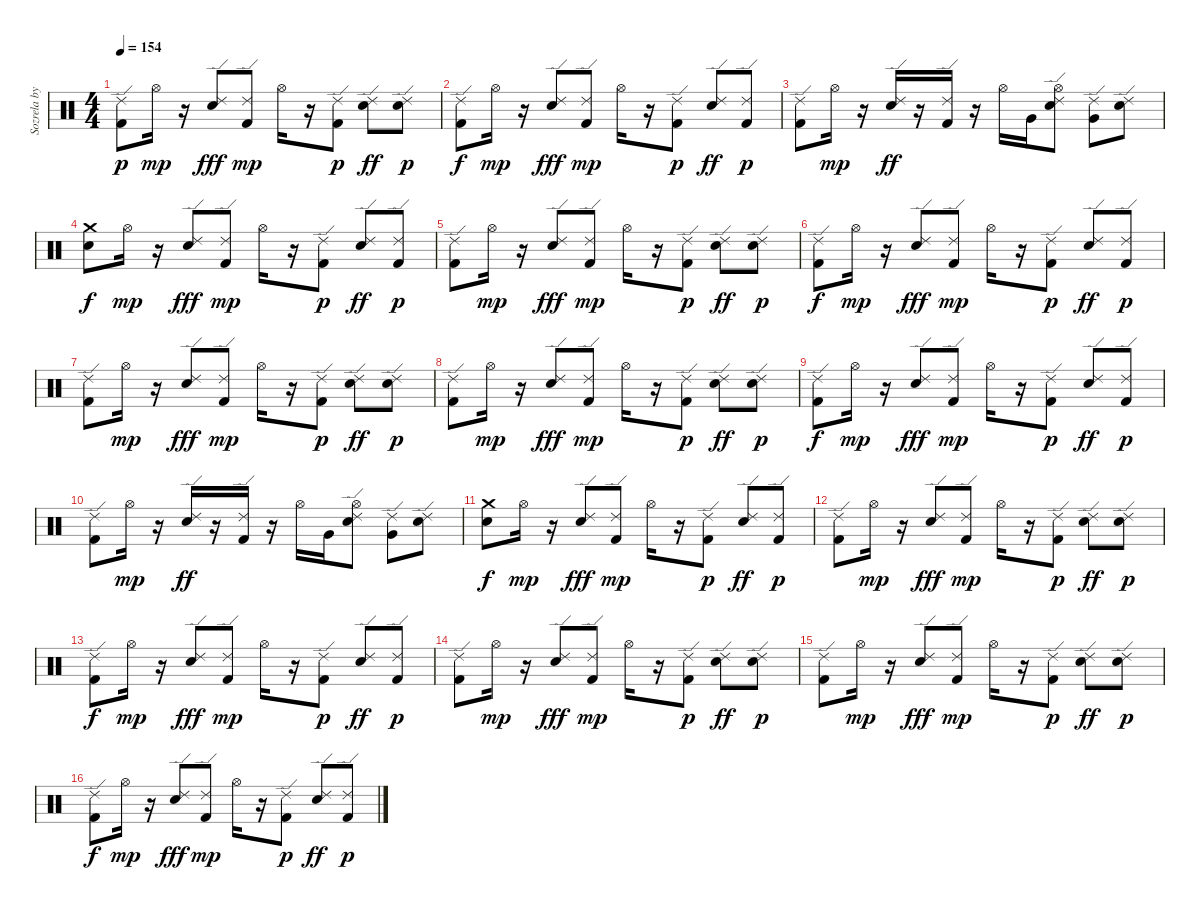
\track ("Sozrela by Anton" "Sozrela by") {instrument percussion}
\staff {score}
\articulation defaults
\ts (4 4)
\tempo 154
\clef neutral
\ks c
("Kick (hit) 2" "Ride (edge) 2").8{dy p} "Hi-Hat (open)".16{dy mp} r.16 ("Ride (edge) 2" "Snare (hit) 2").8{dy fff} ("Ride (edge) 2" "Kick (hit) 2").8{dy mp} "Hi-Hat (open)".16 r.16 ("Ride (edge) 2" "Kick (hit) 2").8{dy p} ("Ride (edge) 2" "Snare (hit) 2").8{dy ff} ("Ride (edge) 2" "Snare (hit) 2").8{dy p} |
("Kick (hit) 2" "Ride (edge) 2").8{dy f} "Hi-Hat (open)".16{dy mp} r.16 ("Ride (edge) 2" "Snare (hit) 2").8{dy fff} ("Ride (edge) 2" "Kick (hit) 2").8{dy mp} "Hi-Hat (open)".16 r.16 ("Ride (edge) 2" "Kick (hit) 2").8{dy p} ("Ride (edge) 2" "Snare (hit) 2").8{dy ff} ("Ride (edge) 2" "Kick (hit) 2").8{dy p} |
("Kick (hit) 2" "Ride (edge) 2").8 "Hi-Hat (open)".16{dy mp} r.16 ("Snare (hit) 2" "Ride (edge) 2").16{dy ff} r.16 ("Kick (hit) 2" "Ride (edge) 2").16 r.16 "Hi-Hat (open)".16 "Very Low Tom (hit)".16 ("Hi-Hat (open)" "Ride (edge) 2" "Electric Snare (hit)").8 ("Ride (edge) 2" "Very Low Tom (hit)").8 ("Ride (edge) 2" "Electric Snare (hit)").8 |
("Electric Snare (hit)" "Crash medium (hit)").8{dy f} "Hi-Hat (open)".16{dy mp} r.16 ("Ride (edge) 2" "Snare (hit) 2").8{dy fff} ("Ride (edge) 2" "Kick (hit) 2").8{dy mp} "Hi-Hat (open)".16 r.16 ("Ride (edge) 2" "Kick (hit) 2").8{dy p} ("Ride (edge) 2" "Snare (hit) 2").8{dy ff} ("Ride (edge) 2" "Kick (hit) 2").8{dy p} |
("Kick (hit) 2" "Ride (edge) 2").8 "Hi-Hat (open)".16{dy mp} r.16 ("Ride (edge) 2" "Snare (hit) 2").8{dy fff} ("Ride (edge) 2" "Kick (hit) 2").8{dy mp} "Hi-Hat (open)".16 r.16 ("Ride (edge) 2" "Kick (hit) 2").8{dy p} ("Ride (edge) 2" "Snare (hit) 2").8{dy ff} ("Ride (edge) 2" "Snare (hit) 2").8{dy p} |
("Kick (hit) 2" "Ride (edge) 2").8{dy f} "Hi-Hat (open)".16{dy mp} r.16 ("Ride (edge) 2" "Snare (hit) 2").8{dy fff} ("Ride (edge) 2" "Kick (hit) 2").8{dy mp} "Hi-Hat (open)".16 r.16 ("Ride (edge) 2" "Kick (hit) 2").8{dy p} ("Ride (edge) 2" "Snare (hit) 2").8{dy ff} ("Ride (edge) 2" "Kick (hit) 2").8{dy p} |
("Kick (hit) 2" "Ride (edge) 2").8 "Hi-Hat (open)".16{dy mp} r.16 ("Ride (edge) 2" "Snare (hit) 2").8{dy fff} ("Ride (edge) 2" "Kick (hit) 2").8{dy mp} "Hi-Hat (open)".16 r.16 ("Ride (edge) 2" "Kick (hit) 2").8{dy p} ("Ride (edge) 2" "Snare (hit) 2").8{dy ff} ("Ride (edge) 2" "Snare (hit) 2").8{dy p} |
("Kick (hit) 2" "Ride (edge) 2").8 "Hi-Hat (open)".16{dy mp} r.16 ("Ride (edge) 2" "Snare (hit) 2").8{dy fff} ("Ride (edge) 2" "Kick (hit) 2").8{dy mp} "Hi-Hat (open)".16 r.16 ("Ride (edge) 2" "Kick (hit) 2").8{dy p} ("Ride (edge) 2" "Snare (hit) 2").8{dy ff} ("Ride (edge) 2" "Snare (hit) 2").8{dy p} |
("Kick (hit) 2" "Ride (edge) 2").8{dy f} "Hi-Hat (open)".16{dy mp} r.16 ("Ride (edge) 2" "Snare (hit) 2").8{dy fff} ("Ride (edge) 2" "Kick (hit) 2").8{dy mp} "Hi-Hat (open)".16 r.16 ("Ride (edge) 2" "Kick (hit) 2").8{dy p} ("Ride (edge) 2" "Snare (hit) 2").8{dy ff} ("Ride (edge) 2" "Kick (hit) 2").8{dy p} |
("Kick (hit) 2" "Ride (edge) 2").8 "Hi-Hat (open)".16{dy mp} r.16 ("Snare (hit) 2" "Ride (edge) 2").16{dy ff} r.16 ("Kick (hit) 2" "Ride (edge) 2").16 r.16 "Hi-Hat (open)".16 "Very Low Tom (hit)".16 ("Hi-Hat (open)" "Ride (edge) 2" "Electric Snare (hit)").8 ("Ride (edge) 2" "Very Low Tom (hit)").8 ("Ride (edge) 2" "Electric Snare (hit)").8 |
("Electric Snare (hit)" "Crash medium (hit)").8{dy f} "Hi-Hat (open)".16{dy mp} r.16 ("Ride (edge) 2" "Snare (hit) 2").8{dy fff} ("Ride (edge) 2" "Kick (hit) 2").8{dy mp} "Hi-Hat (open)".16 r.16 ("Ride (edge) 2" "Kick (hit) 2").8{dy p} ("Ride (edge) 2" "Snare (hit) 2").8{dy ff} ("Ride (edge) 2" "Kick (hit) 2").8{dy p} |
("Kick (hit) 2" "Ride (edge) 2").8 "Hi-Hat (open)".16{dy mp} r.16 ("Ride (edge) 2" "Snare (hit) 2").8{dy fff} ("Ride (edge) 2" "Kick (hit) 2").8{dy mp} "Hi-Hat (open)".16 r.16 ("Ride (edge) 2" "Kick (hit) 2").8{dy p} ("Ride (edge) 2" "Snare (hit) 2").8{dy ff} ("Ride (edge) 2" "Snare (hit) 2").8{dy p} |
("Kick (hit) 2" "Ride (edge) 2").8{dy f} "Hi-Hat (open)".16{dy mp} r.16 ("Ride (edge) 2" "Snare (hit) 2").8{dy fff} ("Ride (edge) 2" "Kick (hit) 2").8{dy mp} "Hi-Hat (open)".16 r.16 ("Ride (edge) 2" "Kick (hit) 2").8{dy p} ("Ride (edge) 2" "Snare (hit) 2").8{dy ff} ("Ride (edge) 2" "Kick (hit) 2").8{dy p} |
("Kick (hit) 2" "Ride (edge) 2").8 "Hi-Hat (open)".16{dy mp} r.16 ("Ride (edge) 2" "Snare (hit) 2").8{dy fff} ("Ride (edge) 2" "Kick (hit) 2").8{dy mp} "Hi-Hat (open)".16 r.16 ("Ride (edge) 2" "Kick (hit) 2").8{dy p} ("Ride (edge) 2" "Snare (hit) 2").8{dy ff} ("Ride (edge) 2" "Snare (hit) 2").8{dy p} |
("Kick (hit) 2" "Ride (edge) 2").8 "Hi-Hat (open)".16{dy mp} r.16 ("Ride (edge) 2" "Snare (hit) 2").8{dy fff} ("Ride (edge) 2" "Kick (hit) 2").8{dy mp} "Hi-Hat (open)".16 r.16 ("Ride (edge) 2" "Kick (hit) 2").8{dy p} ("Ride (edge) 2" "Snare (hit) 2").8{dy ff} ("Ride (edge) 2" "Snare (hit) 2").8{dy p} |
("Kick (hit) 2" "Ride (edge) 2").8{dy f} "Hi-Hat (open)".16{dy mp} r.16 ("Ride (edge) 2" "Snare (hit) 2").8{dy fff} ("Ride (edge) 2" "Kick (hit) 2").8{dy mp} "Hi-Hat (open)".16 r.16 ("Ride (edge) 2" "Kick (hit) 2").8{dy p} ("Ride (edge) 2" "Snare (hit) 2").8{dy ff} ("Ride (edge) 2" "Kick (hit) 2").8{dy p}
